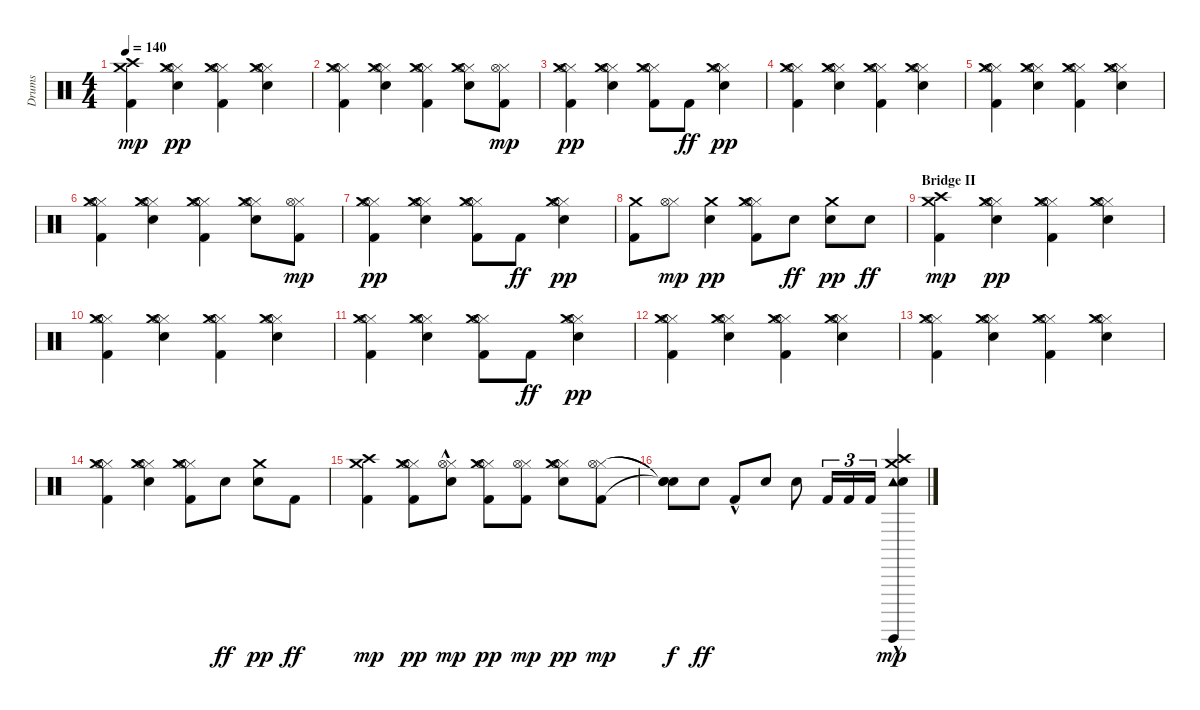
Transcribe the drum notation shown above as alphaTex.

\track ("Drums" "Drums") {instrument percussion}
\staff {score}
\articulation defaults
\ts (4 4)
\tempo 140
\clef neutral
\ks c
("Kick (hit) 2" "Crash high (hit)" "Crash medium (hit)").4{dy mp} ("Snare (hit) 2" "Hi-Hat (closed)" "Hi-Hat (open)" "Crash medium (hit)").4{dy pp} ("Kick (hit) 2" "Hi-Hat (closed)" "Hi-Hat (open)" "Crash medium (hit)").4 ("Snare (hit) 2" "Hi-Hat (closed)" "Hi-Hat (open)" "Crash medium (hit)").4 |
("Kick (hit) 2" "Hi-Hat (closed)" "Hi-Hat (open)" "Crash medium (hit)").4 ("Snare (hit) 2" "Hi-Hat (closed)" "Hi-Hat (open)" "Crash medium (hit)").4 ("Kick (hit) 2" "Hi-Hat (closed)" "Hi-Hat (open)" "Crash medium (hit)").4 ("Snare (hit) 2" "Hi-Hat (closed)" "Hi-Hat (open)" "Crash medium (hit)").8 ("Kick (hit) 2" "Hi-Hat (closed)" "Hi-Hat (open)").8{dy mp} |
("Kick (hit) 2" "Hi-Hat (closed)" "Hi-Hat (open)" "Crash medium (hit)").4{dy pp} ("Snare (hit) 2" "Hi-Hat (closed)" "Hi-Hat (open)" "Crash medium (hit)").4 ("Kick (hit) 2" "Hi-Hat (closed)" "Hi-Hat (open)" "Crash medium (hit)").8 "Kick (hit) 2".8{dy ff} ("Snare (hit) 2" "Hi-Hat (closed)" "Hi-Hat (open)" "Crash medium (hit)").4{dy pp} |
("Kick (hit) 2" "Hi-Hat (closed)" "Hi-Hat (open)" "Crash medium (hit)").4 ("Snare (hit) 2" "Hi-Hat (closed)" "Hi-Hat (open)" "Crash medium (hit)").4 ("Kick (hit) 2" "Hi-Hat (closed)" "Hi-Hat (open)" "Crash medium (hit)").4 ("Snare (hit) 2" "Hi-Hat (closed)" "Hi-Hat (open)" "Crash medium (hit)").4 |
("Kick (hit) 2" "Hi-Hat (closed)" "Hi-Hat (open)" "Crash medium (hit)").4 ("Snare (hit) 2" "Hi-Hat (closed)" "Hi-Hat (open)" "Crash medium (hit)").4 ("Kick (hit) 2" "Hi-Hat (closed)" "Hi-Hat (open)" "Crash medium (hit)").4 ("Snare (hit) 2" "Hi-Hat (closed)" "Hi-Hat (open)" "Crash medium (hit)").4 |
("Kick (hit) 2" "Hi-Hat (closed)" "Hi-Hat (open)" "Crash medium (hit)").4 ("Snare (hit) 2" "Hi-Hat (closed)" "Hi-Hat (open)" "Crash medium (hit)").4 ("Kick (hit) 2" "Hi-Hat (closed)" "Hi-Hat (open)" "Crash medium (hit)").4 ("Snare (hit) 2" "Hi-Hat (closed)" "Hi-Hat (open)" "Crash medium (hit)").8 ("Kick (hit) 2" "Hi-Hat (closed)" "Hi-Hat (open)").8{dy mp} |
("Kick (hit) 2" "Hi-Hat (closed)" "Hi-Hat (open)" "Crash medium (hit)").4{dy pp} ("Snare (hit) 2" "Hi-Hat (closed)" "Hi-Hat (open)" "Crash medium (hit)").4 ("Kick (hit) 2" "Hi-Hat (closed)" "Hi-Hat (open)" "Crash medium (hit)").8 "Kick (hit) 2".8{dy ff} ("Snare (hit) 2" "Hi-Hat (closed)" "Hi-Hat (open)" "Crash medium (hit)").4{dy pp} |
("Kick (hit) 2" "Crash medium (hit)").8 ("Hi-Hat (closed)" "Hi-Hat (open)").8{dy mp} ("Snare (hit) 2" "Crash medium (hit)").4{dy pp} ("Kick (hit) 2" "Hi-Hat (closed)" "Hi-Hat (open)" "Crash medium (hit)").8 "Snare (hit) 2".8{dy ff} ("Snare (hit) 2" "Crash medium (hit)").8{dy pp} "Snare (hit) 2".8{dy ff} |
\section ("" "Bridge II")
("Kick (hit) 2" "Crash high (hit)" "Crash medium (hit)").4{dy mp} ("Snare (hit) 2" "Hi-Hat (closed)" "Hi-Hat (open)" "Crash medium (hit)").4{dy pp} ("Kick (hit) 2" "Hi-Hat (closed)" "Hi-Hat (open)" "Crash medium (hit)").4 ("Snare (hit) 2" "Hi-Hat (closed)" "Hi-Hat (open)" "Crash medium (hit)").4 |
("Kick (hit) 2" "Hi-Hat (closed)" "Hi-Hat (open)" "Crash medium (hit)").4 ("Snare (hit) 2" "Hi-Hat (closed)" "Hi-Hat (open)" "Crash medium (hit)").4 ("Kick (hit) 2" "Hi-Hat (closed)" "Hi-Hat (open)" "Crash medium (hit)").4 ("Snare (hit) 2" "Hi-Hat (closed)" "Hi-Hat (open)" "Crash medium (hit)").4 |
("Kick (hit) 2" "Hi-Hat (closed)" "Hi-Hat (open)" "Crash medium (hit)").4 ("Snare (hit) 2" "Hi-Hat (closed)" "Hi-Hat (open)" "Crash medium (hit)").4 ("Kick (hit) 2" "Hi-Hat (closed)" "Hi-Hat (open)" "Crash medium (hit)").8 "Kick (hit) 2".8{dy ff} ("Snare (hit) 2" "Hi-Hat (closed)" "Hi-Hat (open)" "Crash medium (hit)").4{dy pp} |
("Kick (hit) 2" "Hi-Hat (closed)" "Hi-Hat (open)" "Crash medium (hit)").4 ("Snare (hit) 2" "Hi-Hat (closed)" "Hi-Hat (open)" "Crash medium (hit)").4 ("Kick (hit) 2" "Hi-Hat (closed)" "Hi-Hat (open)" "Crash medium (hit)").4 ("Snare (hit) 2" "Hi-Hat (closed)" "Hi-Hat (open)" "Crash medium (hit)").4 |
("Kick (hit) 2" "Hi-Hat (closed)" "Hi-Hat (open)" "Crash medium (hit)").4 ("Snare (hit) 2" "Hi-Hat (closed)" "Hi-Hat (open)" "Crash medium (hit)").4 ("Kick (hit) 2" "Hi-Hat (closed)" "Hi-Hat (open)" "Crash medium (hit)").4 ("Snare (hit) 2" "Hi-Hat (closed)" "Hi-Hat (open)" "Crash medium (hit)").4 |
("Kick (hit) 2" "Hi-Hat (closed)" "Hi-Hat (open)" "Crash medium (hit)").4 ("Snare (hit) 2" "Hi-Hat (closed)" "Hi-Hat (open)" "Crash medium (hit)").4 ("Kick (hit) 2" "Hi-Hat (closed)" "Hi-Hat (open)" "Crash medium (hit)").8 "Snare (hit) 2".8{dy ff} ("Snare (hit) 2" "Crash medium (hit)").8{dy pp} "Kick (hit) 2".8{dy ff} |
("Kick (hit) 2" "Crash high (hit)" "Crash medium (hit)").4{dy mp} ("Hi-Hat (closed)" "Hi-Hat (open)" "Kick (hit) 2" "Crash medium (hit)").8{dy pp} ("Hi-Hat (closed)" "Snare (hit) 2"{hac} "Hi-Hat (open)").8{dy mp} ("Kick (hit) 2" "Hi-Hat (closed)" "Hi-Hat (open)" "Crash medium (hit)").8{dy pp} ("Hi-Hat (closed)" "Kick (hit) 2" "Hi-Hat (open)").8{dy mp} ("Snare (hit) 2" "Hi-Hat (closed)" "Hi-Hat (open)" "Crash medium (hit)").8{dy pp} ("Hi-Hat (closed)" "Kick (hit) 2" "Hi-Hat (open)").8{dy mp} |
("Snare (hit)"{t} "Snare (hit)"{t} "Snare (hit)"{t}).8{dy f} "Snare (hit) 2".8{dy ff} "Kick (hit) 2"{hac}.8 "Snare (hit) 2".8 "Snare (hit) 2".8 "Kick (hit) 2".16{tu (3 2)} "Kick (hit) 2".16{tu (3 2)} "Kick (hit) 2".16{tu (3 2)} ("Crash high (hit)" "Tambourine (hit)"{hac} "Crash medium (hit)" "Snare (hit) 2"{hac} "Guiro (hit)"{hac}).4{dy mp}
